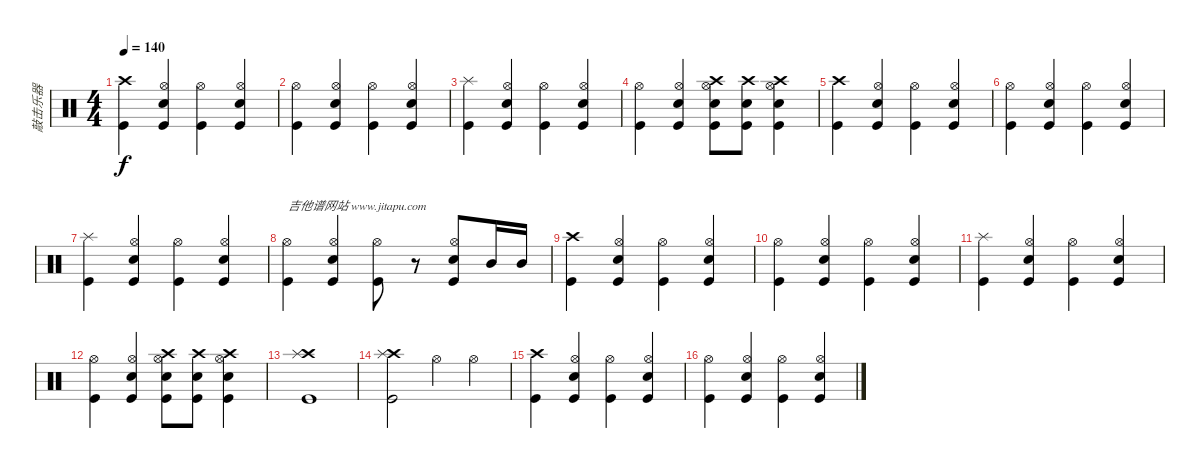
\track ("敲击乐器" "敲击乐器") {instrument percussion}
\staff {score}
\articulation defaults
\ts (4 4)
\tempo 140
\clef neutral
\ks c
("Crash high (hit)" "Kick (hit)").4{dy f} ("Hi-Hat (open)" "Electric Snare (hit)" "Kick (hit)").4 ("Hi-Hat (open)" "Kick (hit)").4 ("Hi-Hat (open)" "Electric Snare (hit)" "Kick (hit)").4 |
("Hi-Hat (open)" "Kick (hit)").4 ("Hi-Hat (open)" "Electric Snare (hit)" "Kick (hit)").4 ("Hi-Hat (open)" "Kick (hit)").4 ("Hi-Hat (open)" "Electric Snare (hit)" "Kick (hit)").4 |
("Splash (hit)" "Kick (hit)").4 ("Hi-Hat (open)" "Electric Snare (hit)" "Kick (hit)").4 ("Hi-Hat (open)" "Kick (hit)").4 ("Hi-Hat (open)" "Electric Snare (hit)" "Kick (hit)").4 |
("Hi-Hat (open)" "Kick (hit)").4 ("Hi-Hat (open)" "Electric Snare (hit)" "Kick (hit)").4 ("Crash high (hit)" "Hi-Hat (open)" "Electric Snare (hit)" "Kick (hit)").8 ("Crash high (hit)" "Electric Snare (hit)" "Kick (hit)").8 ("Crash high (hit)" "Hi-Hat (open)" "Electric Snare (hit)" "Kick (hit)").4 |
("Crash high (hit)" "Kick (hit)").4 ("Hi-Hat (open)" "Electric Snare (hit)" "Kick (hit)").4 ("Hi-Hat (open)" "Kick (hit)").4 ("Hi-Hat (open)" "Electric Snare (hit)" "Kick (hit)").4 |
("Hi-Hat (open)" "Kick (hit)").4 ("Hi-Hat (open)" "Electric Snare (hit)" "Kick (hit)").4 ("Hi-Hat (open)" "Kick (hit)").4 ("Hi-Hat (open)" "Electric Snare (hit)" "Kick (hit)").4 |
("Splash (hit)" "Kick (hit)").4 ("Hi-Hat (open)" "Electric Snare (hit)" "Kick (hit)").4 ("Hi-Hat (open)" "Kick (hit)").4 ("Hi-Hat (open)" "Electric Snare (hit)" "Kick (hit)").4 |
("Hi-Hat (open)" "Kick (hit)").4{txt "吉他谱网站 www.jitapu.com"} ("Hi-Hat (open)" "Electric Snare (hit)" "Kick (hit)").4 ("Hi-Hat (open)" "Kick (hit)").8 r.8 ("Hi-Hat (open)" "Electric Snare (hit)" "Kick (hit)").8 "Mid Tom (hit)".16 "Mid Tom (hit)".16 |
("Crash high (hit)" "Kick (hit)").4 ("Hi-Hat (open)" "Electric Snare (hit)" "Kick (hit)").4 ("Hi-Hat (open)" "Kick (hit)").4 ("Hi-Hat (open)" "Electric Snare (hit)" "Kick (hit)").4 |
("Hi-Hat (open)" "Kick (hit)").4 ("Hi-Hat (open)" "Electric Snare (hit)" "Kick (hit)").4 ("Hi-Hat (open)" "Kick (hit)").4 ("Hi-Hat (open)" "Electric Snare (hit)" "Kick (hit)").4 |
("Splash (hit)" "Kick (hit)").4 ("Hi-Hat (open)" "Electric Snare (hit)" "Kick (hit)").4 ("Hi-Hat (open)" "Kick (hit)").4 ("Hi-Hat (open)" "Electric Snare (hit)" "Kick (hit)").4 |
("Hi-Hat (open)" "Kick (hit)").4 ("Hi-Hat (open)" "Electric Snare (hit)" "Kick (hit)").4 ("Crash high (hit)" "Hi-Hat (open)" "Electric Snare (hit)" "Kick (hit)").8 ("Crash high (hit)" "Electric Snare (hit)" "Kick (hit)").8 ("Crash high (hit)" "Hi-Hat (open)" "Electric Snare (hit)" "Kick (hit)").4 |
("Crash high (hit)" "Splash (hit)" "Kick (hit)").1 |
("Crash high (hit)" "Splash (hit)" "Kick (hit)").2 "Hi-Hat (open)".4 "Hi-Hat (open)".4 |
("Crash high (hit)" "Kick (hit)").4 ("Hi-Hat (open)" "Electric Snare (hit)" "Kick (hit)").4 ("Hi-Hat (open)" "Kick (hit)").4 ("Hi-Hat (open)" "Electric Snare (hit)" "Kick (hit)").4 |
("Hi-Hat (open)" "Kick (hit)").4 ("Hi-Hat (open)" "Electric Snare (hit)" "Kick (hit)").4 ("Hi-Hat (open)" "Kick (hit)").4 ("Hi-Hat (open)" "Electric Snare (hit)" "Kick (hit)").4
